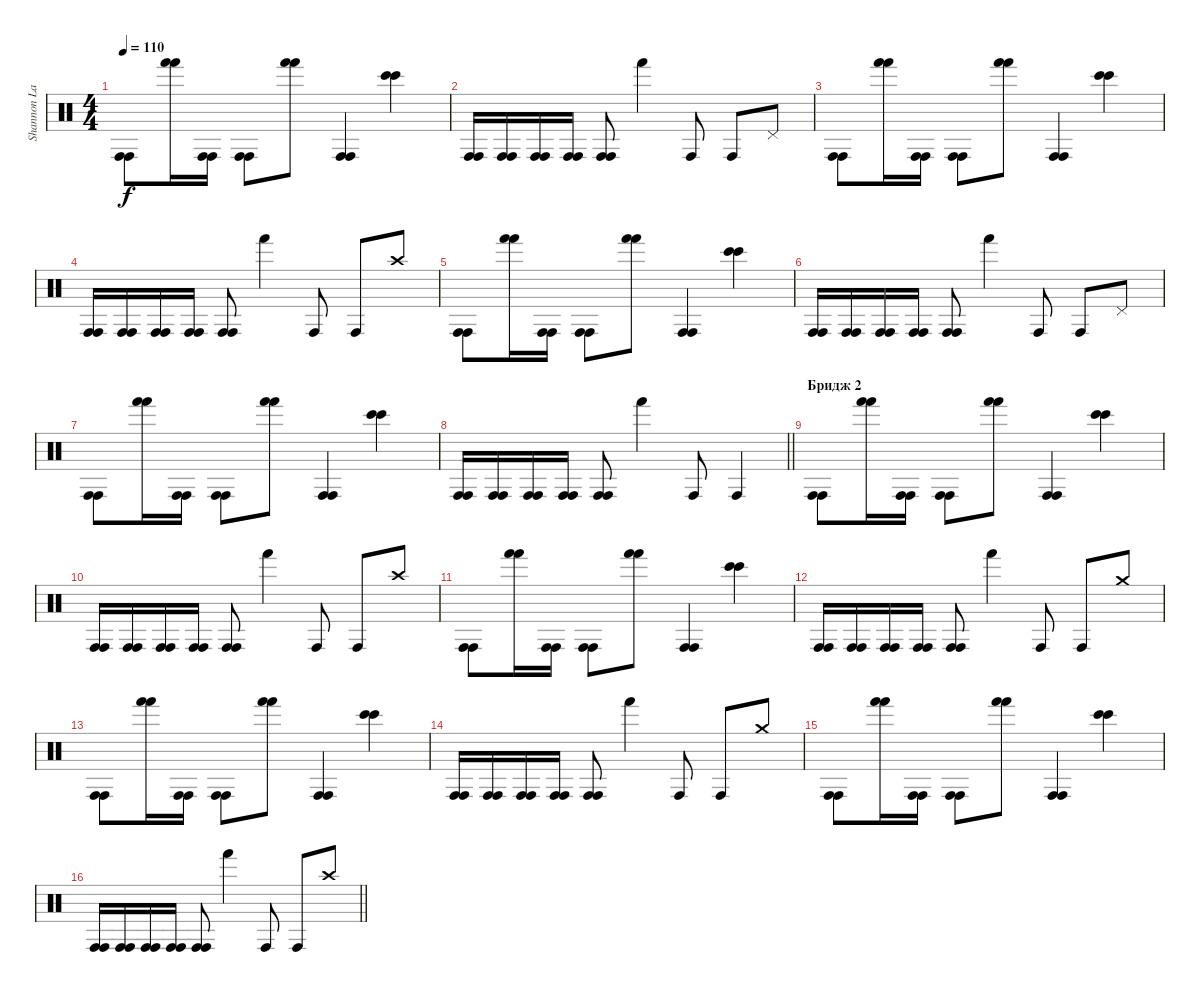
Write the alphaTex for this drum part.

\track ("Shannon Larkin [Percussion 1]" "Shannon La") {instrument percussion}
\staff {score}
\articulation defaults
\ts (4 4)
\tempo 110
\clef neutral
\ks c
("Conga high (hit)" "Conga high (hit)").8{dy f} ("Hand (hit)" "Hand (hit)").16 ("Conga high (hit)" "Conga high (hit)").16 ("Conga high (hit)" "Conga high (hit)").8 ("Hand (hit)" "Hand (hit)").8 ("Conga high (hit)" "Conga high (hit)").4 ("Bongo High (hit)" "Bongo High (hit)").4 |
("Conga high (hit)" "Conga high (hit)").16 ("Conga high (hit)" "Conga high (hit)").16 ("Conga high (hit)" "Conga high (hit)").16 ("Conga high (hit)" "Conga high (hit)").16 ("Conga high (hit)" "Conga high (hit)").8 "Hand (hit)".4 "Conga high (hit)".8 "Conga high (hit)".8 "Pedal Hi-Hat (hit)".8 |
("Conga high (hit)" "Conga high (hit)").8 ("Hand (hit)" "Hand (hit)").16 ("Conga high (hit)" "Conga high (hit)").16 ("Conga high (hit)" "Conga high (hit)").8 ("Hand (hit)" "Hand (hit)").8 ("Conga high (hit)" "Conga high (hit)").4 ("Bongo High (hit)" "Bongo High (hit)").4 |
("Conga high (hit)" "Conga high (hit)").16 ("Conga high (hit)" "Conga high (hit)").16 ("Conga high (hit)" "Conga high (hit)").16 ("Conga high (hit)" "Conga high (hit)").16 ("Conga high (hit)" "Conga high (hit)").8 "Hand (hit)".4 "Conga high (hit)".8 "Conga high (hit)".8 "Crash high (hit)".8 |
("Conga high (hit)" "Conga high (hit)").8 ("Hand (hit)" "Hand (hit)").16 ("Conga high (hit)" "Conga high (hit)").16 ("Conga high (hit)" "Conga high (hit)").8 ("Hand (hit)" "Hand (hit)").8 ("Conga high (hit)" "Conga high (hit)").4 ("Bongo High (hit)" "Bongo High (hit)").4 |
("Conga high (hit)" "Conga high (hit)").16 ("Conga high (hit)" "Conga high (hit)").16 ("Conga high (hit)" "Conga high (hit)").16 ("Conga high (hit)" "Conga high (hit)").16 ("Conga high (hit)" "Conga high (hit)").8 "Hand (hit)".4 "Conga high (hit)".8 "Conga high (hit)".8 "Pedal Hi-Hat (hit)".8 |
("Conga high (hit)" "Conga high (hit)").8 ("Hand (hit)" "Hand (hit)").16 ("Conga high (hit)" "Conga high (hit)").16 ("Conga high (hit)" "Conga high (hit)").8 ("Hand (hit)" "Hand (hit)").8 ("Conga high (hit)" "Conga high (hit)").4 ("Bongo High (hit)" "Bongo High (hit)").4 |
\barLineRight lightlight
("Conga high (hit)" "Conga high (hit)").16 ("Conga high (hit)" "Conga high (hit)").16 ("Conga high (hit)" "Conga high (hit)").16 ("Conga high (hit)" "Conga high (hit)").16 ("Conga high (hit)" "Conga high (hit)").8 "Hand (hit)".4 "Conga high (hit)".8 "Conga high (hit)".4 |
\section ("" "Бридж 2")
("Conga high (hit)" "Conga high (hit)").8 ("Hand (hit)" "Hand (hit)").16 ("Conga high (hit)" "Conga high (hit)").16 ("Conga high (hit)" "Conga high (hit)").8 ("Hand (hit)" "Hand (hit)").8 ("Conga high (hit)" "Conga high (hit)").4 ("Bongo High (hit)" "Bongo High (hit)").4 |
("Conga high (hit)" "Conga high (hit)").16 ("Conga high (hit)" "Conga high (hit)").16 ("Conga high (hit)" "Conga high (hit)").16 ("Conga high (hit)" "Conga high (hit)").16 ("Conga high (hit)" "Conga high (hit)").8 "Hand (hit)".4 "Conga high (hit)".8 "Conga high (hit)".8 "Crash high (hit)".8 |
("Conga high (hit)" "Conga high (hit)").8 ("Hand (hit)" "Hand (hit)").16 ("Conga high (hit)" "Conga high (hit)").16 ("Conga high (hit)" "Conga high (hit)").8 ("Hand (hit)" "Hand (hit)").8 ("Conga high (hit)" "Conga high (hit)").4 ("Bongo High (hit)" "Bongo High (hit)").4 |
("Conga high (hit)" "Conga high (hit)").16 ("Conga high (hit)" "Conga high (hit)").16 ("Conga high (hit)" "Conga high (hit)").16 ("Conga high (hit)" "Conga high (hit)").16 ("Conga high (hit)" "Conga high (hit)").8 "Hand (hit)".4 "Conga high (hit)".8 "Conga high (hit)".8 "Crash medium (hit)".8 |
("Conga high (hit)" "Conga high (hit)").8 ("Hand (hit)" "Hand (hit)").16 ("Conga high (hit)" "Conga high (hit)").16 ("Conga high (hit)" "Conga high (hit)").8 ("Hand (hit)" "Hand (hit)").8 ("Conga high (hit)" "Conga high (hit)").4 ("Bongo High (hit)" "Bongo High (hit)").4 |
("Conga high (hit)" "Conga high (hit)").16 ("Conga high (hit)" "Conga high (hit)").16 ("Conga high (hit)" "Conga high (hit)").16 ("Conga high (hit)" "Conga high (hit)").16 ("Conga high (hit)" "Conga high (hit)").8 "Hand (hit)".4 "Conga high (hit)".8 "Conga high (hit)".8 "Crash medium (hit)".8 |
("Conga high (hit)" "Conga high (hit)").8 ("Hand (hit)" "Hand (hit)").16 ("Conga high (hit)" "Conga high (hit)").16 ("Conga high (hit)" "Conga high (hit)").8 ("Hand (hit)" "Hand (hit)").8 ("Conga high (hit)" "Conga high (hit)").4 ("Bongo High (hit)" "Bongo High (hit)").4 |
\barLineRight lightlight
("Conga high (hit)" "Conga high (hit)").16 ("Conga high (hit)" "Conga high (hit)").16 ("Conga high (hit)" "Conga high (hit)").16 ("Conga high (hit)" "Conga high (hit)").16 ("Conga high (hit)" "Conga high (hit)").8 "Hand (hit)".4 "Conga high (hit)".8 "Conga high (hit)".8 "Crash high (hit)".8
